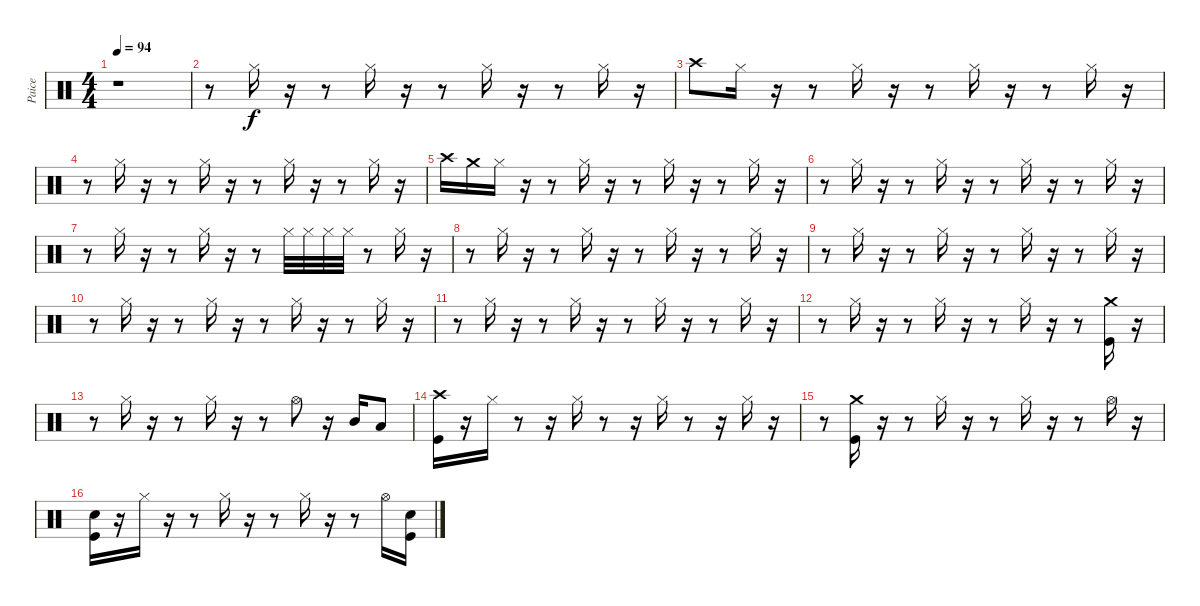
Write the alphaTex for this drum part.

\track ("Paice" "Paice") {instrument percussion}
\staff {score}
\articulation defaults
\ts (4 4)
\tempo 94
\clef neutral
\ks c
r.1{dy f} |
r.8 "Hi-Hat (closed)".16 r.16 r.8 "Hi-Hat (closed)".16 r.16 r.8 "Hi-Hat (closed)".16 r.16 r.8 "Hi-Hat (closed)".16 r.16 |
"Crash high (hit)".8 "Hi-Hat (closed)".16 r.16 r.8 "Hi-Hat (closed)".16 r.16 r.8 "Hi-Hat (closed)".16 r.16 r.8 "Hi-Hat (closed)".16 r.16 |
r.8 "Hi-Hat (closed)".16 r.16 r.8 "Hi-Hat (closed)".16 r.16 r.8 "Hi-Hat (closed)".16 r.16 r.8 "Hi-Hat (closed)".16 r.16 |
"Crash high (hit)".16 "Crash medium (hit)".16 "Hi-Hat (closed)".16 r.16 r.8 "Hi-Hat (closed)".16 r.16 r.8 "Hi-Hat (closed)".16 r.16 r.8 "Hi-Hat (closed)".16 r.16 |
r.8 "Hi-Hat (closed)".16 r.16 r.8 "Hi-Hat (closed)".16 r.16 r.8 "Hi-Hat (closed)".16 r.16 r.8 "Hi-Hat (closed)".16 r.16 |
r.8 "Hi-Hat (closed)".16 r.16 r.8 "Hi-Hat (closed)".16 r.16 r.8 "Hi-Hat (closed)".32 "Hi-Hat (closed)".32 "Hi-Hat (closed)".32 "Hi-Hat (closed)".32 r.8 "Hi-Hat (closed)".16 r.16 |
r.8 "Hi-Hat (closed)".16 r.16 r.8 "Hi-Hat (closed)".16 r.16 r.8 "Hi-Hat (closed)".16 r.16 r.8 "Hi-Hat (closed)".16 r.16 |
r.8 "Hi-Hat (closed)".16 r.16 r.8 "Hi-Hat (closed)".16 r.16 r.8 "Hi-Hat (closed)".16 r.16 r.8 "Hi-Hat (closed)".16 r.16 |
r.8 "Hi-Hat (closed)".16 r.16 r.8 "Hi-Hat (closed)".16 r.16 r.8 "Hi-Hat (closed)".16 r.16 r.8 "Hi-Hat (closed)".16 r.16 |
r.8 "Hi-Hat (closed)".16 r.16 r.8 "Hi-Hat (closed)".16 r.16 r.8 "Hi-Hat (closed)".16 r.16 r.8 "Hi-Hat (closed)".16 r.16 |
r.8 "Hi-Hat (closed)".16 r.16 r.8 "Hi-Hat (closed)".16 r.16 r.8 "Hi-Hat (closed)".16 r.16 r.8 ("Crash medium (hit)" "Kick (hit)").16 r.16 |
r.8 "Hi-Hat (closed)".16 r.16 r.8 "Hi-Hat (closed)".16 r.16 r.8 "Hi-Hat (open)".8 r.16 "Mid Tom (hit)".16 "Low Tom (hit)".8 |
("Crash high (hit)" "Kick (hit)").16 r.16 "Hi-Hat (closed)".16 r.8 r.16 "Hi-Hat (closed)".16 r.8 r.16 "Hi-Hat (closed)".16 r.8 r.16 "Hi-Hat (closed)".16 r.16 |
r.8 ("Crash medium (hit)" "Kick (hit)").16 r.16 r.8 "Hi-Hat (closed)".16 r.16 r.8 "Hi-Hat (closed)".16 r.16 r.8 "Hi-Hat (open)".16 r.16 |
("Snare (hit) 2" "Kick (hit)").16 r.16 "Hi-Hat (closed)".16 r.16 r.8 "Hi-Hat (closed)".16 r.16 r.8 "Hi-Hat (closed)".16 r.16 r.8 "Hi-Hat (open)".16 ("Snare (hit) 2" "Kick (hit)").16
